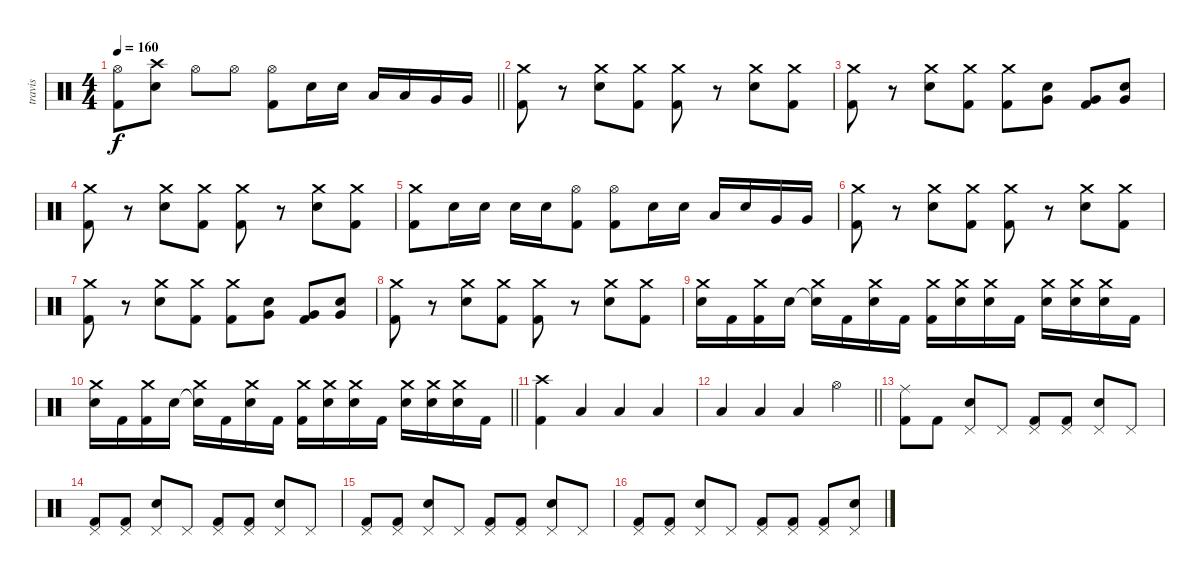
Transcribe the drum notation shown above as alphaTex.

\track ("travis" "travis") {instrument percussion}
\staff {score}
\articulation defaults
\ts (4 4)
\tempo 160
\clef neutral
\barLineRight lightlight
\ks c
("Hi-Hat (open)" "Kick (hit) 2").8{dy f} ("Crash high (hit)" "Snare (hit) 2").8 "Hi-Hat (open)".8 "Hi-Hat (open)".8 ("Hi-Hat (open)" "Kick (hit) 2").8 "Snare (hit) 2".16 "Snare (hit) 2".16 "Low Tom (hit)".16 "Low Tom (hit)".16 "Very Low Tom (hit)".16 "Very Low Tom (hit)".16 |
("Kick (hit) 2" "Crash medium (hit)").8 r.8 ("Snare (hit) 2" "Crash medium (hit)").8 ("Kick (hit) 2" "Crash medium (hit)").8 ("Kick (hit) 2" "Crash medium (hit)").8 r.8 ("Snare (hit) 2" "Crash medium (hit)").8 ("Kick (hit) 2" "Crash medium (hit)").8 |
("Kick (hit) 2" "Crash medium (hit)").8 r.8 ("Snare (hit) 2" "Crash medium (hit)").8 ("Kick (hit) 2" "Crash medium (hit)").8 ("Kick (hit) 2" "Crash medium (hit)").8 ("Snare (hit) 2" "Very Low Tom (hit)").8 ("Kick (hit) 2" "Very Low Tom (hit)").8 ("Snare (hit) 2" "Very Low Tom (hit)").8 |
("Kick (hit) 2" "Crash medium (hit)").8 r.8 ("Snare (hit) 2" "Crash medium (hit)").8 ("Kick (hit) 2" "Crash medium (hit)").8 ("Kick (hit) 2" "Crash medium (hit)").8 r.8 ("Snare (hit) 2" "Crash medium (hit)").8 ("Kick (hit) 2" "Crash medium (hit)").8 |
("Kick (hit) 2" "Crash medium (hit)").8 "Snare (hit) 2".16 "Snare (hit) 2".16 "Snare (hit) 2".16 "Snare (hit) 2".16 ("Hi-Hat (open)" "Kick (hit) 2").8 ("Hi-Hat (open)" "Kick (hit) 2").8 "Snare (hit) 2".16 "Snare (hit) 2".16 "Low Tom (hit)".16 "Snare (hit) 2".16 "Very Low Tom (hit)".16 "Very Low Tom (hit)".16 |
("Kick (hit) 2" "Crash medium (hit)").8 r.8 ("Snare (hit) 2" "Crash medium (hit)").8 ("Kick (hit) 2" "Crash medium (hit)").8 ("Kick (hit) 2" "Crash medium (hit)").8 r.8 ("Snare (hit) 2" "Crash medium (hit)").8 ("Kick (hit) 2" "Crash medium (hit)").8 |
("Kick (hit) 2" "Crash medium (hit)").8 r.8 ("Snare (hit) 2" "Crash medium (hit)").8 ("Kick (hit) 2" "Crash medium (hit)").8 ("Kick (hit) 2" "Crash medium (hit)").8 ("Snare (hit) 2" "Very Low Tom (hit)").8 ("Kick (hit) 2" "Very Low Tom (hit)").8 ("Snare (hit) 2" "Very Low Tom (hit)").8 |
("Kick (hit) 2" "Crash medium (hit)").8 r.8 ("Snare (hit) 2" "Crash medium (hit)").8 ("Kick (hit) 2" "Crash medium (hit)").8 ("Kick (hit) 2" "Crash medium (hit)").8 r.8 ("Snare (hit) 2" "Crash medium (hit)").8 ("Kick (hit) 2" "Crash medium (hit)").8 |
("Snare (hit) 2" "Crash medium (hit)").16 "Kick (hit) 2".16 ("Kick (hit) 2" "Crash medium (hit)").16 "Snare (hit) 2".16 ("Snare (hit)"{t} "Crash medium (hit)").16 "Kick (hit) 2".16 ("Snare (hit) 2" "Crash medium (hit)").16 "Kick (hit) 2".16 ("Kick (hit) 2" "Crash medium (hit)").16 ("Snare (hit) 2" "Crash medium (hit)").16 ("Snare (hit) 2" "Crash medium (hit)").16 "Kick (hit) 2".16 ("Snare (hit) 2" "Crash medium (hit)").16 ("Snare (hit) 2" "Crash medium (hit)").16 ("Snare (hit) 2" "Crash medium (hit)").16 "Kick (hit) 2".16 |
\barLineRight lightlight
("Snare (hit) 2" "Crash medium (hit)").16 "Kick (hit) 2".16 ("Kick (hit) 2" "Crash medium (hit)").16 "Snare (hit) 2".16 ("Snare (hit)"{t} "Crash medium (hit)").16 "Kick (hit) 2".16 ("Snare (hit) 2" "Crash medium (hit)").16 "Kick (hit) 2".16 ("Kick (hit) 2" "Crash medium (hit)").16 ("Snare (hit) 2" "Crash medium (hit)").16 ("Snare (hit) 2" "Crash medium (hit)").16 "Kick (hit) 2".16 ("Snare (hit) 2" "Crash medium (hit)").16 ("Snare (hit) 2" "Crash medium (hit)").16 ("Snare (hit) 2" "Crash medium (hit)").16 "Kick (hit) 2".16 |
("Crash high (hit)" "Kick (hit) 2").4 "Low Tom (hit)".4 "Low Tom (hit)".4 "Low Tom (hit)".4 |
\barLineRight lightlight "Low Tom (hit)".4 "Low Tom (hit)".4 "Low Tom (hit)".4 "Hi-Hat (open)".4
|
("Ride (middle)" "Kick (hit) 2").8 "Kick (hit) 2".8 ("Pedal Hi-Hat (hit)" "Snare (hit) 2").8 "Pedal Hi-Hat (hit)".8 ("Pedal Hi-Hat (hit)" "Kick (hit) 2").8 ("Pedal Hi-Hat (hit)" "Kick (hit) 2").8 ("Pedal Hi-Hat (hit)" "Snare (hit) 2").8 "Pedal Hi-Hat (hit)".8 |
("Pedal Hi-Hat (hit)" "Kick (hit) 2").8 ("Pedal Hi-Hat (hit)" "Kick (hit) 2").8 ("Pedal Hi-Hat (hit)" "Snare (hit) 2").8 "Pedal Hi-Hat (hit)".8 ("Pedal Hi-Hat (hit)" "Kick (hit) 2").8 ("Pedal Hi-Hat (hit)" "Kick (hit) 2").8 ("Pedal Hi-Hat (hit)" "Snare (hit) 2").8 "Pedal Hi-Hat (hit)".8 |
("Pedal Hi-Hat (hit)" "Kick (hit) 2").8 ("Pedal Hi-Hat (hit)" "Kick (hit) 2").8 ("Pedal Hi-Hat (hit)" "Snare (hit) 2").8 "Pedal Hi-Hat (hit)".8 ("Pedal Hi-Hat (hit)" "Kick (hit) 2").8 ("Pedal Hi-Hat (hit)" "Kick (hit) 2").8 ("Pedal Hi-Hat (hit)" "Snare (hit) 2").8 "Pedal Hi-Hat (hit)".8 |
("Pedal Hi-Hat (hit)" "Kick (hit) 2").8 ("Pedal Hi-Hat (hit)" "Kick (hit) 2").8 ("Pedal Hi-Hat (hit)" "Snare (hit) 2").8 "Pedal Hi-Hat (hit)".8 ("Pedal Hi-Hat (hit)" "Kick (hit) 2").8 ("Pedal Hi-Hat (hit)" "Kick (hit) 2").8 ("Pedal Hi-Hat (hit)" "Kick (hit) 2").8 ("Pedal Hi-Hat (hit)" "Snare (hit) 2").8
